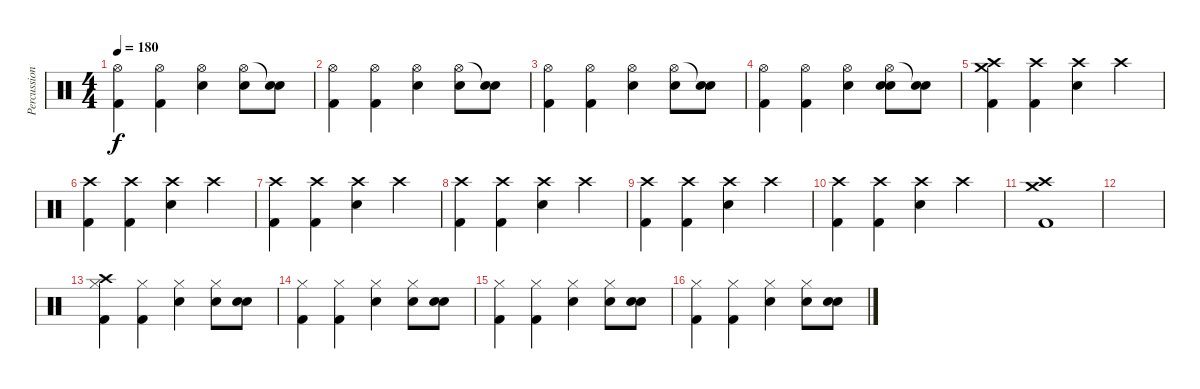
\track ("Percussion" "Percussion") {instrument percussion}
\staff {score}
\articulation defaults
\ts (4 4)
\tempo 180
\clef neutral
\ks c
("Hi-Hat (open)" "Kick (hit) 2").4{dy f} ("Hi-Hat (open)" "Kick (hit) 2").4 ("Hi-Hat (open)" "Electric Snare (hit)").4 ("Hi-Hat (open)" "Snare (hit)").8 ("Snare (hit)"{t} "Electric Snare (hit)").8 |
("Hi-Hat (open)" "Kick (hit) 2").4 ("Hi-Hat (open)" "Kick (hit) 2").4 ("Hi-Hat (open)" "Electric Snare (hit)").4 ("Hi-Hat (open)" "Snare (hit)").8 ("Snare (hit)"{t} "Electric Snare (hit)").8 |
("Hi-Hat (open)" "Kick (hit) 2").4 ("Hi-Hat (open)" "Kick (hit) 2").4 ("Hi-Hat (open)" "Electric Snare (hit)").4 ("Hi-Hat (open)" "Snare (hit)").8 ("Snare (hit)"{t} "Electric Snare (hit)").8 |
("Hi-Hat (open)" "Kick (hit) 2").4 ("Hi-Hat (open)" "Kick (hit) 2").4 ("Hi-Hat (open)" "Electric Snare (hit)").4 ("Hi-Hat (open)" "Electric Snare (hit)" "Snare (hit)").8 ("Snare (hit)"{t} "Electric Snare (hit)").8 |
("Crash medium (hit)" "Crash high (hit)" "Kick (hit) 2").4 ("Crash high (hit)" "Kick (hit) 2").4 ("Crash high (hit)" "Electric Snare (hit)").4 "Crash high (hit)".4 |
("Crash high (hit)" "Kick (hit) 2").4 ("Crash high (hit)" "Kick (hit) 2").4 ("Crash high (hit)" "Electric Snare (hit)").4 "Crash high (hit)".4 |
("Crash high (hit)" "Kick (hit) 2").4 ("Crash high (hit)" "Kick (hit) 2").4 ("Crash high (hit)" "Electric Snare (hit)").4 "Crash high (hit)".4 |
("Crash high (hit)" "Kick (hit) 2").4 ("Crash high (hit)" "Kick (hit) 2").4 ("Crash high (hit)" "Electric Snare (hit)").4 "Crash high (hit)".4 |
("Crash high (hit)" "Kick (hit) 2").4 ("Crash high (hit)" "Kick (hit) 2").4 ("Crash high (hit)" "Electric Snare (hit)").4 "Crash high (hit)".4 |
("Crash high (hit)" "Kick (hit) 2").4 ("Crash high (hit)" "Kick (hit) 2").4 ("Crash high (hit)" "Electric Snare (hit)").4 "Crash high (hit)".4 |
("Crash medium (hit)" "Crash high (hit)" "Kick (hit) 2").1 |
|
("Crash high (hit)" "Hi-Hat (closed)" "Kick (hit) 2").4 ("Hi-Hat (closed)" "Kick (hit) 2").4 ("Hi-Hat (closed)" "Electric Snare (hit)").4 ("Hi-Hat (closed)" "Snare (hit)").8 ("Snare (hit)" "Electric Snare (hit)").8 |
("Hi-Hat (closed)" "Kick (hit) 2").4 ("Hi-Hat (closed)" "Kick (hit) 2").4 ("Hi-Hat (closed)" "Electric Snare (hit)").4 ("Hi-Hat (closed)" "Snare (hit)").8 ("Snare (hit)" "Electric Snare (hit)").8 |
("Hi-Hat (closed)" "Kick (hit) 2").4 ("Hi-Hat (closed)" "Kick (hit) 2").4 ("Hi-Hat (closed)" "Electric Snare (hit)").4 ("Hi-Hat (closed)" "Snare (hit)").8 ("Snare (hit)" "Electric Snare (hit)").8 |
("Hi-Hat (closed)" "Kick (hit) 2").4 ("Hi-Hat (closed)" "Kick (hit) 2").4 ("Hi-Hat (closed)" "Electric Snare (hit)").4 ("Hi-Hat (closed)" "Snare (hit)").8 ("Snare (hit)" "Electric Snare (hit)").8
